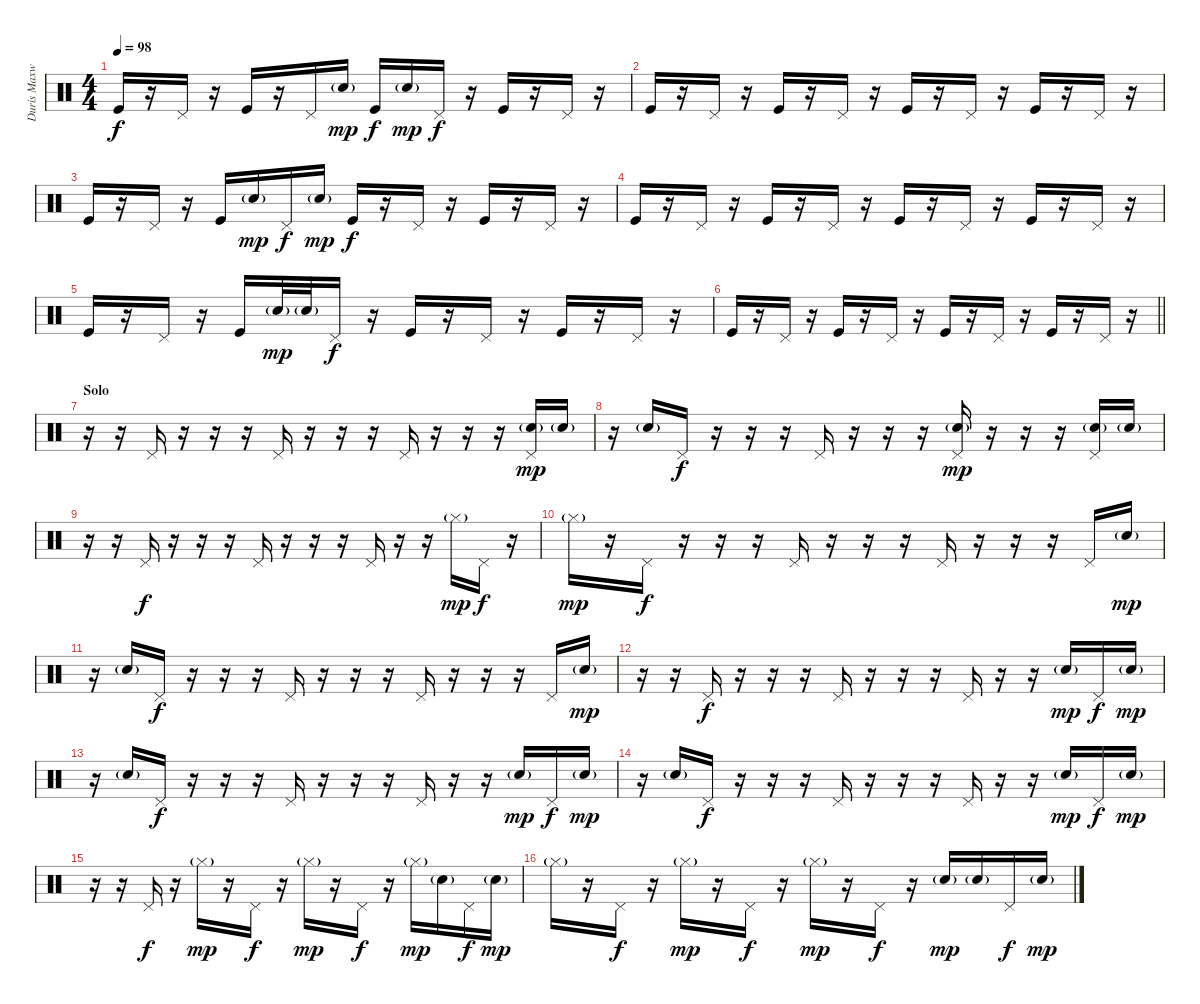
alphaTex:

\track ("Duris Maxwell" "Duris Maxw") {instrument percussion}
\staff {score}
\articulation defaults
\ts (4 4)
\tempo 98
\clef neutral
\ks c "Kick (hit)".16{dy f}
r.16 "Pedal Hi-Hat (hit)".16 r.16 "Kick (hit)".16 r.16 "Pedal Hi-Hat (hit)".16 "Snare (hit) 2"{g}.16{dy mp} "Kick (hit)".16{dy f} "Snare (hit) 2"{g}.16{dy mp} "Pedal Hi-Hat (hit)".16{dy f} r.16 "Kick (hit)".16 r.16 "Pedal Hi-Hat (hit)".16 r.16 |
"Kick (hit)".16 r.16 "Pedal Hi-Hat (hit)".16 r.16 "Kick (hit)".16 r.16 "Pedal Hi-Hat (hit)".16 r.16 "Kick (hit)".16 r.16 "Pedal Hi-Hat (hit)".16 r.16 "Kick (hit)".16 r.16 "Pedal Hi-Hat (hit)".16 r.16 |
"Kick (hit)".16 r.16 "Pedal Hi-Hat (hit)".16 r.16 "Kick (hit)".16 "Snare (hit) 2"{g}.16{dy mp} "Pedal Hi-Hat (hit)".16{dy f} "Snare (hit) 2"{g}.16{dy mp} "Kick (hit)".16{dy f} r.16 "Pedal Hi-Hat (hit)".16 r.16 "Kick (hit)".16 r.16 "Pedal Hi-Hat (hit)".16 r.16 |
"Kick (hit)".16 r.16 "Pedal Hi-Hat (hit)".16 r.16 "Kick (hit)".16 r.16 "Pedal Hi-Hat (hit)".16 r.16 "Kick (hit)".16 r.16 "Pedal Hi-Hat (hit)".16 r.16 "Kick (hit)".16 r.16 "Pedal Hi-Hat (hit)".16 r.16 |
"Kick (hit)".16 r.16 "Pedal Hi-Hat (hit)".16 r.16 "Kick (hit)".16 "Snare (hit) 2"{g}.32{dy mp} "Snare (hit) 2"{g}.32 "Pedal Hi-Hat (hit)".16{dy f} r.16 "Kick (hit)".16 r.16 "Pedal Hi-Hat (hit)".16 r.16 "Kick (hit)".16 r.16 "Pedal Hi-Hat (hit)".16 r.16 |
\barLineRight lightlight "Kick (hit)".16
r.16 "Pedal Hi-Hat (hit)".16 r.16 "Kick (hit)".16 r.16 "Pedal Hi-Hat (hit)".16 r.16 "Kick (hit)".16 r.16 "Pedal Hi-Hat (hit)".16 r.16 "Kick (hit)".16 r.16 "Pedal Hi-Hat (hit)".16 r.16 |
\section ("" "Solo")
r.16 r.16 "Pedal Hi-Hat (hit)".16 r.16 r.16 r.16 "Pedal Hi-Hat (hit)".16 r.16 r.16 r.16 "Pedal Hi-Hat (hit)".16 r.16 r.16 r.16 ("Pedal Hi-Hat (hit)" "Snare (hit) 2"{g}).16{dy mp} "Snare (hit) 2"{g}.16 |
r.16 "Snare (hit) 2"{g}.16 "Pedal Hi-Hat (hit)".16{dy f} r.16 r.16 r.16 "Pedal Hi-Hat (hit)".16 r.16 r.16 r.16 ("Pedal Hi-Hat (hit)" "Snare (hit) 2"{g}).16{dy mp} r.16 r.16 r.16 ("Pedal Hi-Hat (hit)" "Snare (hit) 2"{g}).16 "Snare (hit) 2"{g}.16 |
r.16 r.16 "Pedal Hi-Hat (hit)".16{dy f} r.16 r.16 r.16 "Pedal Hi-Hat (hit)".16 r.16 r.16 r.16 "Pedal Hi-Hat (hit)".16 r.16 r.16 "Hi-Hat (closed)"{g}.16{dy mp} "Pedal Hi-Hat (hit)".16{dy f} r.16 |
"Hi-Hat (closed)"{g}.16{dy mp} r.16 "Pedal Hi-Hat (hit)".16{dy f} r.16 r.16 r.16 "Pedal Hi-Hat (hit)".16 r.16 r.16 r.16 "Pedal Hi-Hat (hit)".16 r.16 r.16 r.16 "Pedal Hi-Hat (hit)".16 "Snare (hit) 2"{g}.16{dy mp} |
r.16 "Snare (hit) 2"{g}.16 "Pedal Hi-Hat (hit)".16{dy f} r.16 r.16 r.16 "Pedal Hi-Hat (hit)".16 r.16 r.16 r.16 "Pedal Hi-Hat (hit)".16 r.16 r.16 r.16 "Pedal Hi-Hat (hit)".16 "Snare (hit) 2"{g}.16{dy mp} |
r.16 r.16 "Pedal Hi-Hat (hit)".16{dy f} r.16 r.16 r.16 "Pedal Hi-Hat (hit)".16 r.16 r.16 r.16 "Pedal Hi-Hat (hit)".16 r.16 r.16 "Snare (hit) 2"{g}.16{dy mp} "Pedal Hi-Hat (hit)".16{dy f} "Snare (hit) 2"{g}.16{dy mp} |
r.16 "Snare (hit) 2"{g}.16 "Pedal Hi-Hat (hit)".16{dy f} r.16 r.16 r.16 "Pedal Hi-Hat (hit)".16 r.16 r.16 r.16 "Pedal Hi-Hat (hit)".16 r.16 r.16 "Snare (hit) 2"{g}.16{dy mp} "Pedal Hi-Hat (hit)".16{dy f} "Snare (hit) 2"{g}.16{dy mp} |
r.16 "Snare (hit) 2"{g}.16 "Pedal Hi-Hat (hit)".16{dy f} r.16 r.16 r.16 "Pedal Hi-Hat (hit)".16 r.16 r.16 r.16 "Pedal Hi-Hat (hit)".16 r.16 r.16 "Snare (hit) 2"{g}.16{dy mp} "Pedal Hi-Hat (hit)".16{dy f} "Snare (hit) 2"{g}.16{dy mp} |
r.16 r.16 "Pedal Hi-Hat (hit)".16{dy f} r.16 "Hi-Hat (closed)"{g}.16{dy mp} r.16 "Pedal Hi-Hat (hit)".16{dy f} r.16 "Hi-Hat (closed)"{g}.16{dy mp} r.16 "Pedal Hi-Hat (hit)".16{dy f} r.16 "Hi-Hat (closed)"{g}.16{dy mp} "Snare (hit) 2"{g}.16 "Pedal Hi-Hat (hit)".16{dy f} "Snare (hit) 2"{g}.16{dy mp} |
"Hi-Hat (closed)"{g}.16 r.16 "Pedal Hi-Hat (hit)".16{dy f} r.16 "Hi-Hat (closed)"{g}.16{dy mp} r.16 "Pedal Hi-Hat (hit)".16{dy f} r.16 "Hi-Hat (closed)"{g}.16{dy mp} r.16 "Pedal Hi-Hat (hit)".16{dy f} r.16 "Snare (hit) 2"{g}.16{dy mp} "Snare (hit) 2"{g}.16 "Pedal Hi-Hat (hit)".16{dy f} "Snare (hit) 2"{g}.16{dy mp}
